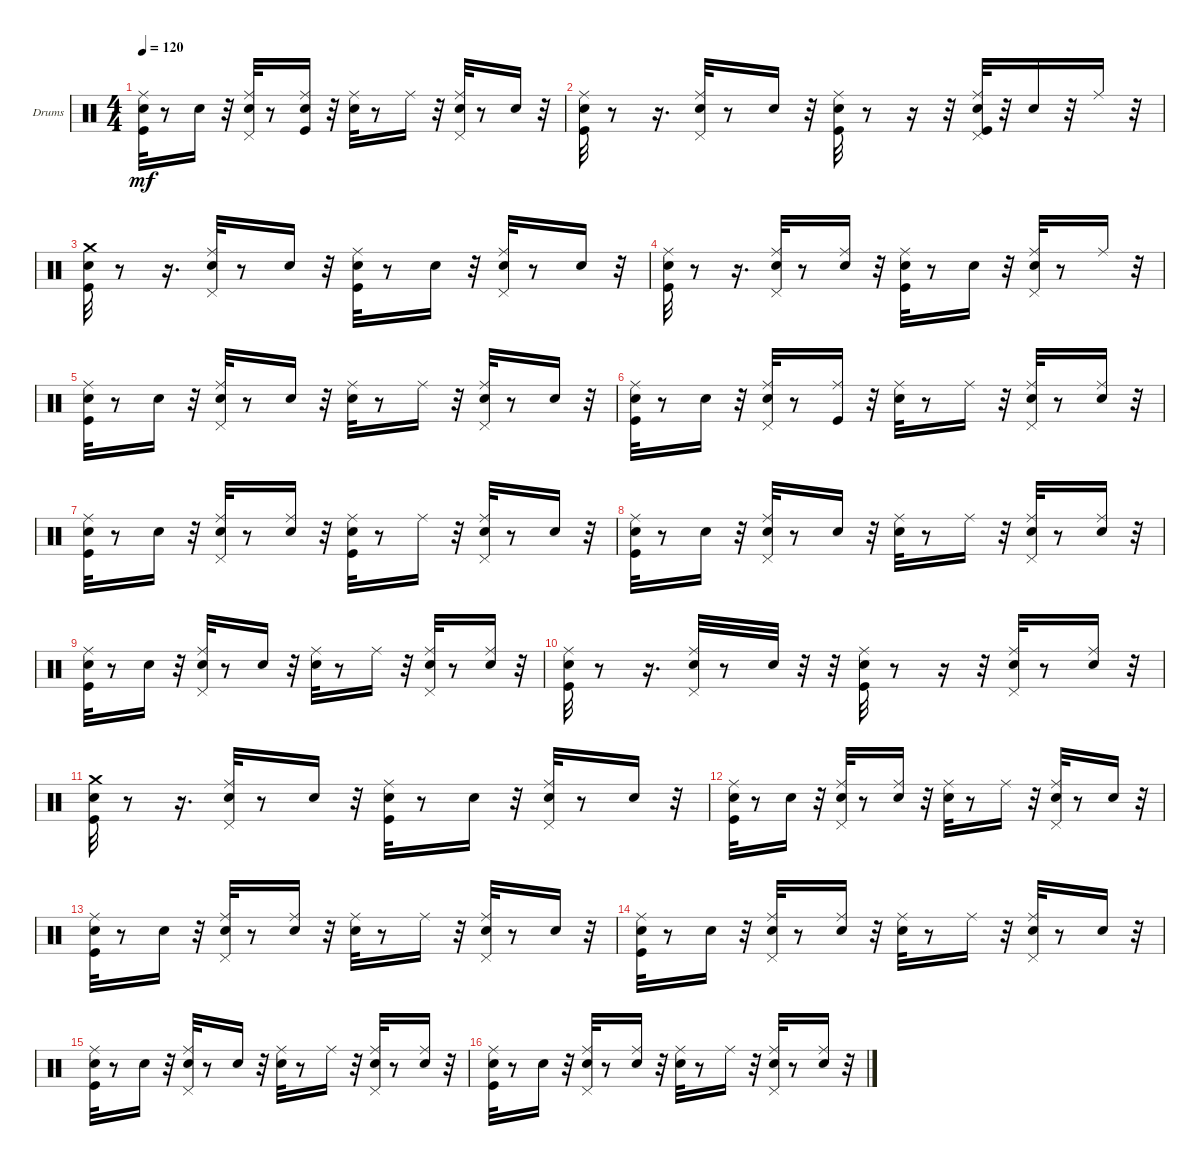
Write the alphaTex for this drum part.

\bracketExtendMode groupsimilarinstruments
\firstSystemTrackNameOrientation horizontal
\otherSystemsTrackNameOrientation horizontal
\track ("Drums   (BB)" "Drums") {instrument percussion}
\staff {score}
\articulation defaults
\ts (4 4)
\tempo 120
\clef neutral
\ks c
("Kick (hit)" "Snare (hit) 2" "Ride (middle)").32{dy mf} r.8 "Snare (hit) 2".16 r.32 ("Snare (hit) 2" "Ride (middle)" "Pedal Hi-Hat (hit)").32 r.8 ("Kick (hit)" "Snare (hit) 2" "Ride (middle)").16 r.32 ("Snare (hit) 2" "Ride (middle)").32 r.8 "Ride (middle)".16 r.32 ("Snare (hit) 2" "Ride (middle)" "Pedal Hi-Hat (hit)").32 r.8 "Snare (hit) 2".16 r.32 |
("Kick (hit)" "Snare (hit) 2" "Ride (middle)").32 r.8 r.16{d} ("Snare (hit) 2" "Ride (middle)" "Pedal Hi-Hat (hit)").32 r.8 "Snare (hit) 2".16 r.32 ("Kick (hit)" "Snare (hit) 2" "Ride (middle)").32 r.8 r.16 r.32 ("Kick (hit)" "Snare (hit) 2" "Ride (middle)" "Pedal Hi-Hat (hit)").32 r.32 "Snare (hit) 2".16 r.32 "Ride (middle)".16 r.32 |
("Kick (hit)" "Snare (hit) 2" "Crash medium (hit)").32 r.8 r.16{d} ("Snare (hit) 2" "Ride (middle)" "Pedal Hi-Hat (hit)").32 r.8 "Snare (hit) 2".16 r.32 ("Kick (hit)" "Snare (hit) 2" "Ride (middle)").32 r.8 "Snare (hit) 2".16 r.32 ("Snare (hit) 2" "Ride (middle)" "Pedal Hi-Hat (hit)").32 r.8 "Snare (hit) 2".16 r.32 |
("Kick (hit)" "Snare (hit) 2" "Ride (middle)").32 r.8 r.16{d} ("Snare (hit) 2" "Ride (middle)" "Pedal Hi-Hat (hit)").32 r.8 ("Snare (hit) 2" "Ride (middle)").16 r.32 ("Kick (hit)" "Snare (hit) 2" "Ride (middle)").32 r.8 "Snare (hit) 2".16 r.32 ("Snare (hit) 2" "Ride (middle)" "Pedal Hi-Hat (hit)").32 r.8 "Ride (middle)".16 r.32 |
("Kick (hit)" "Snare (hit) 2" "Ride (middle)").32 r.8 "Snare (hit) 2".16 r.32 ("Snare (hit) 2" "Ride (middle)" "Pedal Hi-Hat (hit)").32 r.8 "Snare (hit) 2".16 r.32 ("Snare (hit) 2" "Ride (middle)").32 r.8 "Ride (middle)".16 r.32 ("Snare (hit) 2" "Ride (middle)" "Pedal Hi-Hat (hit)").32 r.8 "Snare (hit) 2".16 r.32 |
("Kick (hit)" "Snare (hit) 2" "Ride (middle)").32 r.8 "Snare (hit) 2".16 r.32 ("Snare (hit) 2" "Ride (middle)" "Pedal Hi-Hat (hit)").32 r.8 ("Kick (hit)" "Ride (middle)").16 r.32 ("Snare (hit) 2" "Ride (middle)").32 r.8 "Ride (middle)".16 r.32 ("Snare (hit) 2" "Ride (middle)" "Pedal Hi-Hat (hit)").32 r.8 ("Snare (hit) 2" "Ride (middle)").16 r.32 |
("Kick (hit)" "Snare (hit) 2" "Ride (middle)").32 r.8 "Snare (hit) 2".16 r.32 ("Snare (hit) 2" "Ride (middle)" "Pedal Hi-Hat (hit)").32 r.8 ("Snare (hit) 2" "Ride (middle)").16 r.32 ("Kick (hit)" "Snare (hit) 2" "Ride (middle)").32 r.8 "Ride (middle)".16 r.32 ("Snare (hit) 2" "Ride (middle)" "Pedal Hi-Hat (hit)").32 r.8 "Snare (hit) 2".16 r.32 |
("Kick (hit)" "Snare (hit) 2" "Ride (middle)").32 r.8 "Snare (hit) 2".16 r.32 ("Snare (hit) 2" "Ride (middle)" "Pedal Hi-Hat (hit)").32 r.8 "Snare (hit) 2".16 r.32 ("Snare (hit) 2" "Ride (middle)").32 r.8 "Ride (middle)".16 r.32 ("Snare (hit) 2" "Ride (middle)" "Pedal Hi-Hat (hit)").32 r.8 ("Snare (hit) 2" "Ride (middle)").16 r.32 |
("Kick (hit)" "Snare (hit) 2" "Ride (middle)").32 r.8 "Snare (hit) 2".16 r.32 ("Snare (hit) 2" "Ride (middle)" "Pedal Hi-Hat (hit)").32 r.8 "Snare (hit) 2".16 r.32 ("Snare (hit) 2" "Ride (middle)").32 r.8 "Ride (middle)".16 r.32 ("Snare (hit) 2" "Ride (middle)" "Pedal Hi-Hat (hit)").32 r.8 ("Snare (hit) 2" "Ride (middle)").16 r.32 |
("Kick (hit)" "Snare (hit) 2" "Ride (middle)").32 r.8 r.16{d} ("Snare (hit) 2" "Ride (middle)" "Pedal Hi-Hat (hit)").32 r.8 "Snare (hit) 2".32 r.32 r.32 ("Kick (hit)" "Snare (hit) 2" "Ride (middle)").32 r.8 r.16 r.32 ("Snare (hit) 2" "Ride (middle)" "Pedal Hi-Hat (hit)").32 r.8 ("Snare (hit) 2" "Ride (middle)").16 r.32 |
("Kick (hit)" "Snare (hit) 2" "Crash medium (hit)").32 r.8 r.16{d} ("Snare (hit) 2" "Ride (middle)" "Pedal Hi-Hat (hit)").32 r.8 "Snare (hit) 2".16 r.32 ("Kick (hit)" "Snare (hit) 2" "Ride (middle)").32 r.8 "Snare (hit) 2".16 r.32 ("Snare (hit) 2" "Ride (middle)" "Pedal Hi-Hat (hit)").32 r.8 "Snare (hit) 2".16 r.32 |
("Kick (hit)" "Snare (hit) 2" "Ride (middle)").32 r.8 "Snare (hit) 2".16 r.32 ("Snare (hit) 2" "Ride (middle)" "Pedal Hi-Hat (hit)").32 r.8 ("Snare (hit) 2" "Ride (middle)").16 r.32 ("Snare (hit) 2" "Ride (middle)").32 r.8 "Ride (middle)".16 r.32 ("Snare (hit) 2" "Ride (middle)" "Pedal Hi-Hat (hit)").32 r.8 "Snare (hit) 2".16 r.32 |
("Kick (hit)" "Snare (hit) 2" "Ride (middle)").32 r.8 "Snare (hit) 2".16 r.32 ("Snare (hit) 2" "Ride (middle)" "Pedal Hi-Hat (hit)").32 r.8 ("Snare (hit) 2" "Ride (middle)").16 r.32 ("Snare (hit) 2" "Ride (middle)").32 r.8 "Ride (middle)".16 r.32 ("Snare (hit) 2" "Ride (middle)" "Pedal Hi-Hat (hit)").32 r.8 "Snare (hit) 2".16 r.32 |
("Kick (hit)" "Snare (hit) 2" "Ride (middle)").32 r.8 "Snare (hit) 2".16 r.32 ("Snare (hit) 2" "Ride (middle)" "Pedal Hi-Hat (hit)").32 r.8 ("Snare (hit) 2" "Ride (middle)").16 r.32 ("Snare (hit) 2" "Ride (middle)").32 r.8 "Ride (middle)".16 r.32 ("Snare (hit) 2" "Ride (middle)" "Pedal Hi-Hat (hit)").32 r.8 "Snare (hit) 2".16 r.32 |
("Kick (hit)" "Snare (hit) 2" "Ride (middle)").32 r.8 "Snare (hit) 2".16 r.32 ("Snare (hit) 2" "Ride (middle)" "Pedal Hi-Hat (hit)").32 r.8 "Snare (hit) 2".16 r.32 ("Snare (hit) 2" "Ride (middle)").32 r.8 "Ride (middle)".16 r.32 ("Snare (hit) 2" "Ride (middle)" "Pedal Hi-Hat (hit)").32 r.8 ("Snare (hit) 2" "Ride (middle)").16 r.32 |
("Kick (hit)" "Snare (hit) 2" "Ride (middle)").32 r.8 "Snare (hit) 2".16 r.32 ("Snare (hit) 2" "Ride (middle)" "Pedal Hi-Hat (hit)").32 r.8 ("Snare (hit) 2" "Ride (middle)").16 r.32 ("Snare (hit) 2" "Ride (middle)").32 r.8 "Ride (middle)".16 r.32 ("Snare (hit) 2" "Ride (middle)" "Pedal Hi-Hat (hit)").32 r.8 ("Snare (hit) 2" "Ride (middle)").16 r.32
